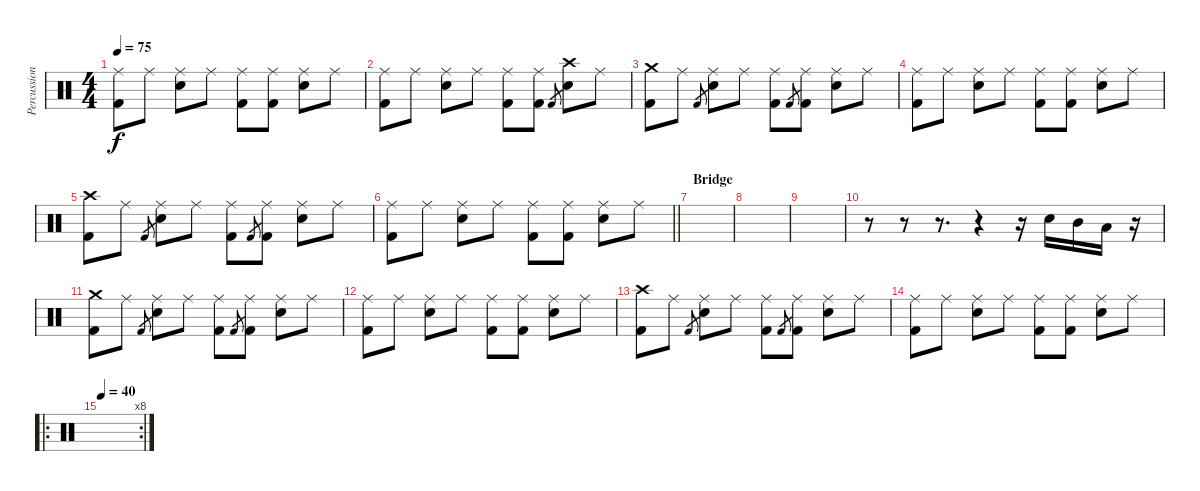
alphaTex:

\track ("Percussions" "Percussion") {instrument percussion}
\staff {score}
\articulation defaults
\ts (4 4)
\tempo 75
\clef neutral
\ks c
("Ride (middle)" "Kick (hit) 2").8{dy f} "Ride (middle)".8 ("Ride (middle)" "Snare (hit) 2").8 "Ride (middle)".8 ("Ride (middle)" "Kick (hit) 2").8 ("Ride (middle)" "Kick (hit) 2").8 ("Ride (middle)" "Snare (hit) 2").8 "Ride (middle)".8 |
("Ride (middle)" "Kick (hit) 2").8 "Ride (middle)".8 ("Ride (middle)" "Snare (hit) 2").8 "Ride (middle)".8 ("Ride (middle)" "Kick (hit) 2").8 ("Ride (middle)" "Kick (hit) 2").8 "Kick (hit) 2".8{gr} ("Crash high (hit)" "Snare (hit) 2").8 "Ride (middle)".8 |
("Crash medium (hit)" "Kick (hit) 2").8 "Ride (middle)".8 "Kick (hit) 2".8{gr} ("Ride (middle)" "Snare (hit) 2").8 "Ride (middle)".8 ("Ride (middle)" "Kick (hit) 2").8 "Kick (hit) 2".8{gr} ("Ride (middle)" "Kick (hit) 2").8 ("Ride (middle)" "Snare (hit) 2").8 "Ride (middle)".8 |
("Ride (middle)" "Kick (hit) 2").8 "Ride (middle)".8 ("Ride (middle)" "Snare (hit) 2").8 "Ride (middle)".8 ("Ride (middle)" "Kick (hit) 2").8 ("Ride (middle)" "Kick (hit) 2").8 ("Ride (middle)" "Snare (hit) 2").8 "Ride (middle)".8 |
("Crash high (hit)" "Kick (hit) 2").8 "Ride (middle)".8 "Kick (hit) 2".8{gr} ("Ride (middle)" "Snare (hit) 2").8 "Ride (middle)".8 ("Ride (middle)" "Kick (hit) 2").8 "Kick (hit) 2".8{gr} ("Ride (middle)" "Kick (hit) 2").8 ("Ride (middle)" "Snare (hit) 2").8 "Ride (middle)".8 |
\barLineRight lightlight
("Ride (middle)" "Kick (hit) 2").8 "Ride (middle)".8 ("Ride (middle)" "Snare (hit) 2").8 "Ride (middle)".8 ("Ride (middle)" "Kick (hit) 2").8 ("Ride (middle)" "Kick (hit) 2").8 ("Ride (middle)" "Snare (hit) 2").8 "Ride (middle)".8 |
\section ("" "Bridge")
|
|
|
r.8 r.8 r.8{d} r.4 r.16 "Snare (hit) 2".16 "Mid Tom (hit)".16 "Low Tom (hit)".16 r.16 |
("Crash medium (hit)" "Kick (hit) 2").8 "Ride (middle)".8 "Kick (hit) 2".8{gr} ("Ride (middle)" "Snare (hit) 2").8 "Ride (middle)".8 ("Ride (middle)" "Kick (hit) 2").8 "Kick (hit) 2".8{gr} ("Ride (middle)" "Kick (hit) 2").8 ("Ride (middle)" "Snare (hit) 2").8 "Ride (middle)".8 |
("Ride (middle)" "Kick (hit) 2").8 "Ride (middle)".8 ("Ride (middle)" "Snare (hit) 2").8 "Ride (middle)".8 ("Ride (middle)" "Kick (hit) 2").8 ("Ride (middle)" "Kick (hit) 2").8 ("Ride (middle)" "Snare (hit) 2").8 "Ride (middle)".8 |
("Crash high (hit)" "Kick (hit) 2").8 "Ride (middle)".8 "Kick (hit) 2".8{gr} ("Ride (middle)" "Snare (hit) 2").8 "Ride (middle)".8 ("Ride (middle)" "Kick (hit) 2").8 "Kick (hit) 2".8{gr} ("Ride (middle)" "Kick (hit) 2").8 ("Ride (middle)" "Snare (hit) 2").8 "Ride (middle)".8 |
("Ride (middle)" "Kick (hit) 2").8 "Ride (middle)".8 ("Ride (middle)" "Snare (hit) 2").8 "Ride (middle)".8 ("Ride (middle)" "Kick (hit) 2").8 ("Ride (middle)" "Kick (hit) 2").8 ("Ride (middle)" "Snare (hit) 2").8 "Ride (middle)".8 |
\ro
\rc 8
\tempo 40
